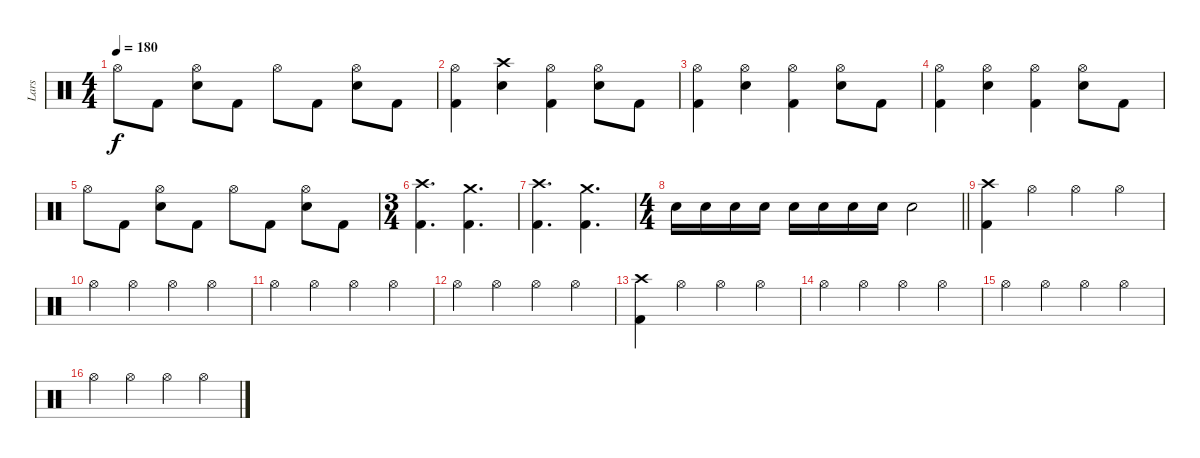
\track ("Lars" "Lars") {instrument percussion}
\staff {score}
\articulation defaults
\ts (4 4)
\tempo 180
\clef neutral
\ks c "Hi-Hat (open)".8{dy f} "Kick (hit) 2".8
("Hi-Hat (open)" "Electric Snare (hit)").8 "Kick (hit) 2".8 "Hi-Hat (open)".8 "Kick (hit) 2".8 ("Hi-Hat (open)" "Electric Snare (hit)").8 "Kick (hit) 2".8 |
("Hi-Hat (open)" "Kick (hit) 2").4 ("Crash high (hit)" "Electric Snare (hit)").4 ("Hi-Hat (open)" "Kick (hit) 2").4 ("Hi-Hat (open)" "Electric Snare (hit)").8 "Kick (hit) 2".8 |
("Hi-Hat (open)" "Kick (hit) 2").4 ("Hi-Hat (open)" "Electric Snare (hit)").4 ("Hi-Hat (open)" "Kick (hit) 2").4 ("Hi-Hat (open)" "Electric Snare (hit)").8 "Kick (hit) 2".8 |
("Hi-Hat (open)" "Kick (hit) 2").4 ("Hi-Hat (open)" "Electric Snare (hit)").4 ("Hi-Hat (open)" "Kick (hit) 2").4 ("Hi-Hat (open)" "Electric Snare (hit)").8 "Kick (hit) 2".8 |
"Hi-Hat (open)".8 "Kick (hit) 2".8 ("Hi-Hat (open)" "Electric Snare (hit)").8 "Kick (hit) 2".8 "Hi-Hat (open)".8 "Kick (hit) 2".8 ("Hi-Hat (open)" "Electric Snare (hit)").8 "Kick (hit) 2".8 |
\ts (3 4)
("Crash high (hit)" "Kick (hit) 2").4{d} ("Crash medium (hit)" "Kick (hit) 2").4{d} |
("Crash high (hit)" "Kick (hit) 2").4{d} ("Crash medium (hit)" "Kick (hit) 2").4{d} |
\ts (4 4)
\barLineRight lightlight "Electric Snare (hit)".16 "Electric Snare (hit)".16 "Electric Snare (hit)".16 "Electric Snare (hit)".16 "Electric Snare (hit)".16 "Electric Snare (hit)".16 "Electric Snare (hit)".16 "Electric Snare (hit)".16 "Electric Snare (hit)".2
|
\section ("" "")
("Crash high (hit)" "Kick (hit) 2").4 "Hi-Hat (open)".4 "Hi-Hat (open)".4 "Hi-Hat (open)".4 |
"Hi-Hat (open)".4 "Hi-Hat (open)".4 "Hi-Hat (open)".4 "Hi-Hat (open)".4 |
"Hi-Hat (open)".4 "Hi-Hat (open)".4 "Hi-Hat (open)".4 "Hi-Hat (open)".4 |
"Hi-Hat (open)".4 "Hi-Hat (open)".4 "Hi-Hat (open)".4 "Hi-Hat (open)".4 |
("Crash high (hit)" "Kick (hit) 2").4 "Hi-Hat (open)".4 "Hi-Hat (open)".4 "Hi-Hat (open)".4 |
"Hi-Hat (open)".4 "Hi-Hat (open)".4 "Hi-Hat (open)".4 "Hi-Hat (open)".4 |
"Hi-Hat (open)".4 "Hi-Hat (open)".4 "Hi-Hat (open)".4 "Hi-Hat (open)".4 |
"Hi-Hat (open)".4 "Hi-Hat (open)".4 "Hi-Hat (open)".4 "Hi-Hat (open)".4
